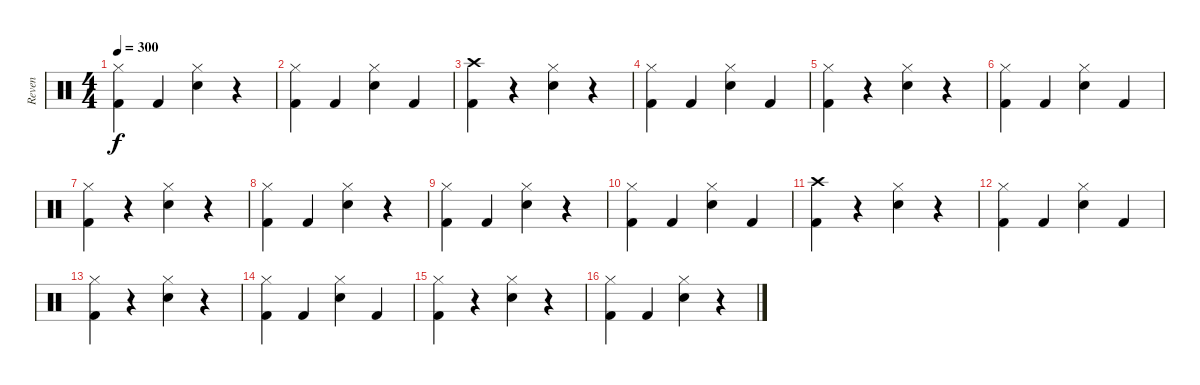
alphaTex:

\track ("Reven" "Reven") {instrument percussion}
\staff {score}
\articulation defaults
\ts (4 4)
\tempo 300
\clef neutral
\ks c
("Hi-Hat (closed)" "Kick (hit) 2").4{dy f} "Kick (hit) 2".4 ("Hi-Hat (closed)" "Electric Snare (hit)").4 r.4 |
("Hi-Hat (closed)" "Kick (hit) 2").4 "Kick (hit) 2".4 ("Hi-Hat (closed)" "Electric Snare (hit)").4 "Kick (hit) 2".4 |
("Crash high (hit)" "Kick (hit) 2").4 r.4 ("Hi-Hat (closed)" "Electric Snare (hit)").4 r.4 |
("Hi-Hat (closed)" "Kick (hit) 2").4 "Kick (hit) 2".4 ("Hi-Hat (closed)" "Electric Snare (hit)").4 "Kick (hit) 2".4 |
("Hi-Hat (closed)" "Kick (hit) 2").4 r.4 ("Hi-Hat (closed)" "Electric Snare (hit)").4 r.4 |
("Hi-Hat (closed)" "Kick (hit) 2").4 "Kick (hit) 2".4 ("Hi-Hat (closed)" "Electric Snare (hit)").4 "Kick (hit) 2".4 |
("Hi-Hat (closed)" "Kick (hit) 2").4 r.4 ("Hi-Hat (closed)" "Electric Snare (hit)").4 r.4 |
("Hi-Hat (closed)" "Kick (hit) 2").4 "Kick (hit) 2".4 ("Hi-Hat (closed)" "Electric Snare (hit)").4 r.4 |
("Hi-Hat (closed)" "Kick (hit) 2").4 "Kick (hit) 2".4 ("Hi-Hat (closed)" "Electric Snare (hit)").4 r.4 |
("Hi-Hat (closed)" "Kick (hit) 2").4 "Kick (hit) 2".4 ("Hi-Hat (closed)" "Electric Snare (hit)").4 "Kick (hit) 2".4 |
("Crash high (hit)" "Kick (hit) 2").4 r.4 ("Hi-Hat (closed)" "Electric Snare (hit)").4 r.4 |
("Hi-Hat (closed)" "Kick (hit) 2").4 "Kick (hit) 2".4 ("Hi-Hat (closed)" "Electric Snare (hit)").4 "Kick (hit) 2".4 |
("Hi-Hat (closed)" "Kick (hit) 2").4 r.4 ("Hi-Hat (closed)" "Electric Snare (hit)").4 r.4 |
("Hi-Hat (closed)" "Kick (hit) 2").4 "Kick (hit) 2".4 ("Hi-Hat (closed)" "Electric Snare (hit)").4 "Kick (hit) 2".4 |
("Hi-Hat (closed)" "Kick (hit) 2").4 r.4 ("Hi-Hat (closed)" "Electric Snare (hit)").4 r.4 |
("Hi-Hat (closed)" "Kick (hit) 2").4 "Kick (hit) 2".4 ("Hi-Hat (closed)" "Electric Snare (hit)").4 r.4
